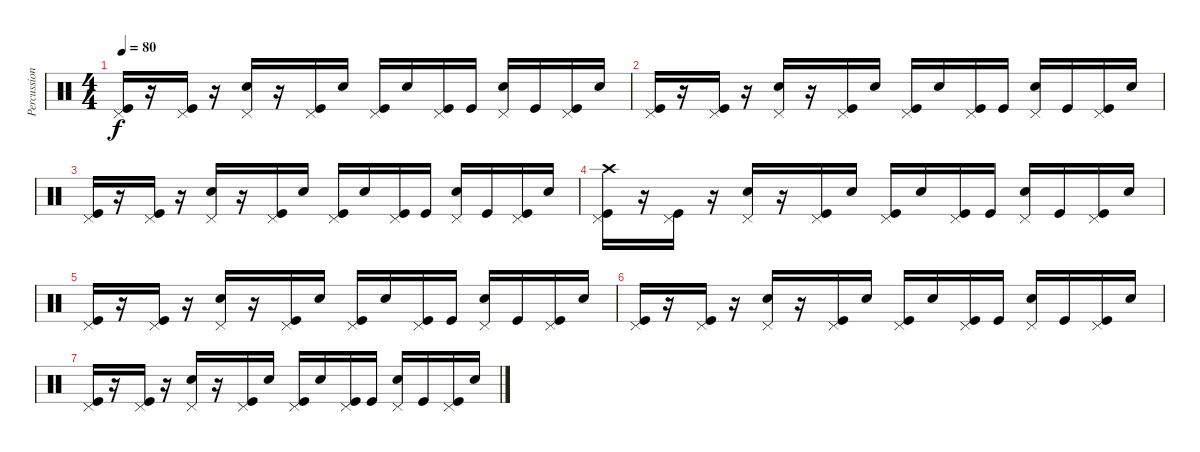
\track ("Percussions" "Percussion") {instrument percussion}
\staff {score}
\articulation defaults
\ts (4 4)
\tempo 80
\clef neutral
\ks c
("Pedal Hi-Hat (hit)" "Kick (hit)").16{dy f} r.16 ("Pedal Hi-Hat (hit)" "Kick (hit)").16 r.16 ("Pedal Hi-Hat (hit)" "Electric Snare (hit)").16 r.16 ("Pedal Hi-Hat (hit)" "Kick (hit)").16 "Electric Snare (hit)".16 ("Pedal Hi-Hat (hit)" "Kick (hit)").16 "Electric Snare (hit)".16 ("Pedal Hi-Hat (hit)" "Kick (hit)").16 "Kick (hit)".16 ("Pedal Hi-Hat (hit)" "Electric Snare (hit)").16 "Kick (hit)".16 ("Pedal Hi-Hat (hit)" "Kick (hit)").16 "Electric Snare (hit)".16 |
("Pedal Hi-Hat (hit)" "Kick (hit)").16 r.16 ("Pedal Hi-Hat (hit)" "Kick (hit)").16 r.16 ("Pedal Hi-Hat (hit)" "Electric Snare (hit)").16 r.16 ("Pedal Hi-Hat (hit)" "Kick (hit)").16 "Electric Snare (hit)".16 ("Pedal Hi-Hat (hit)" "Kick (hit)").16 "Electric Snare (hit)".16 ("Pedal Hi-Hat (hit)" "Kick (hit)").16 "Kick (hit)".16 ("Pedal Hi-Hat (hit)" "Electric Snare (hit)").16 "Kick (hit)".16 ("Pedal Hi-Hat (hit)" "Kick (hit)").16 "Electric Snare (hit)".16 |
("Pedal Hi-Hat (hit)" "Kick (hit)").16 r.16 ("Pedal Hi-Hat (hit)" "Kick (hit)").16 r.16 ("Pedal Hi-Hat (hit)" "Electric Snare (hit)").16 r.16 ("Pedal Hi-Hat (hit)" "Kick (hit)").16 "Electric Snare (hit)".16 ("Pedal Hi-Hat (hit)" "Kick (hit)").16 "Electric Snare (hit)".16 ("Pedal Hi-Hat (hit)" "Kick (hit)").16 "Kick (hit)".16 ("Pedal Hi-Hat (hit)" "Electric Snare (hit)").16 "Kick (hit)".16 ("Pedal Hi-Hat (hit)" "Kick (hit)").16 "Electric Snare (hit)".16 |
("Pedal Hi-Hat (hit)" "Crash high (hit)" "Kick (hit)").16 r.16 ("Pedal Hi-Hat (hit)" "Kick (hit)").16 r.16 ("Pedal Hi-Hat (hit)" "Electric Snare (hit)").16 r.16 ("Pedal Hi-Hat (hit)" "Kick (hit)").16 "Electric Snare (hit)".16 ("Pedal Hi-Hat (hit)" "Kick (hit)").16 "Electric Snare (hit)".16 ("Pedal Hi-Hat (hit)" "Kick (hit)").16 "Kick (hit)".16 ("Pedal Hi-Hat (hit)" "Electric Snare (hit)").16 "Kick (hit)".16 ("Pedal Hi-Hat (hit)" "Kick (hit)").16 "Electric Snare (hit)".16 |
("Pedal Hi-Hat (hit)" "Kick (hit)").16 r.16 ("Pedal Hi-Hat (hit)" "Kick (hit)").16 r.16 ("Pedal Hi-Hat (hit)" "Electric Snare (hit)").16 r.16 ("Pedal Hi-Hat (hit)" "Kick (hit)").16 "Electric Snare (hit)".16 ("Pedal Hi-Hat (hit)" "Kick (hit)").16 "Electric Snare (hit)".16 ("Pedal Hi-Hat (hit)" "Kick (hit)").16 "Kick (hit)".16 ("Pedal Hi-Hat (hit)" "Electric Snare (hit)").16 "Kick (hit)".16 ("Pedal Hi-Hat (hit)" "Kick (hit)").16 "Electric Snare (hit)".16 |
("Pedal Hi-Hat (hit)" "Kick (hit)").16 r.16 ("Pedal Hi-Hat (hit)" "Kick (hit)").16 r.16 ("Pedal Hi-Hat (hit)" "Electric Snare (hit)").16 r.16 ("Pedal Hi-Hat (hit)" "Kick (hit)").16 "Electric Snare (hit)".16 ("Pedal Hi-Hat (hit)" "Kick (hit)").16 "Electric Snare (hit)".16 ("Pedal Hi-Hat (hit)" "Kick (hit)").16 "Kick (hit)".16 ("Pedal Hi-Hat (hit)" "Electric Snare (hit)").16 "Kick (hit)".16 ("Pedal Hi-Hat (hit)" "Kick (hit)").16 "Electric Snare (hit)".16 |
("Pedal Hi-Hat (hit)" "Kick (hit)").16 r.16 ("Pedal Hi-Hat (hit)" "Kick (hit)").16 r.16 ("Pedal Hi-Hat (hit)" "Electric Snare (hit)").16 r.16 ("Pedal Hi-Hat (hit)" "Kick (hit)").16 "Electric Snare (hit)".16 ("Pedal Hi-Hat (hit)" "Kick (hit)").16 "Electric Snare (hit)".16 ("Pedal Hi-Hat (hit)" "Kick (hit)").16 "Kick (hit)".16 ("Pedal Hi-Hat (hit)" "Electric Snare (hit)").16 "Kick (hit)".16 ("Pedal Hi-Hat (hit)" "Kick (hit)").16 "Electric Snare (hit)".16
